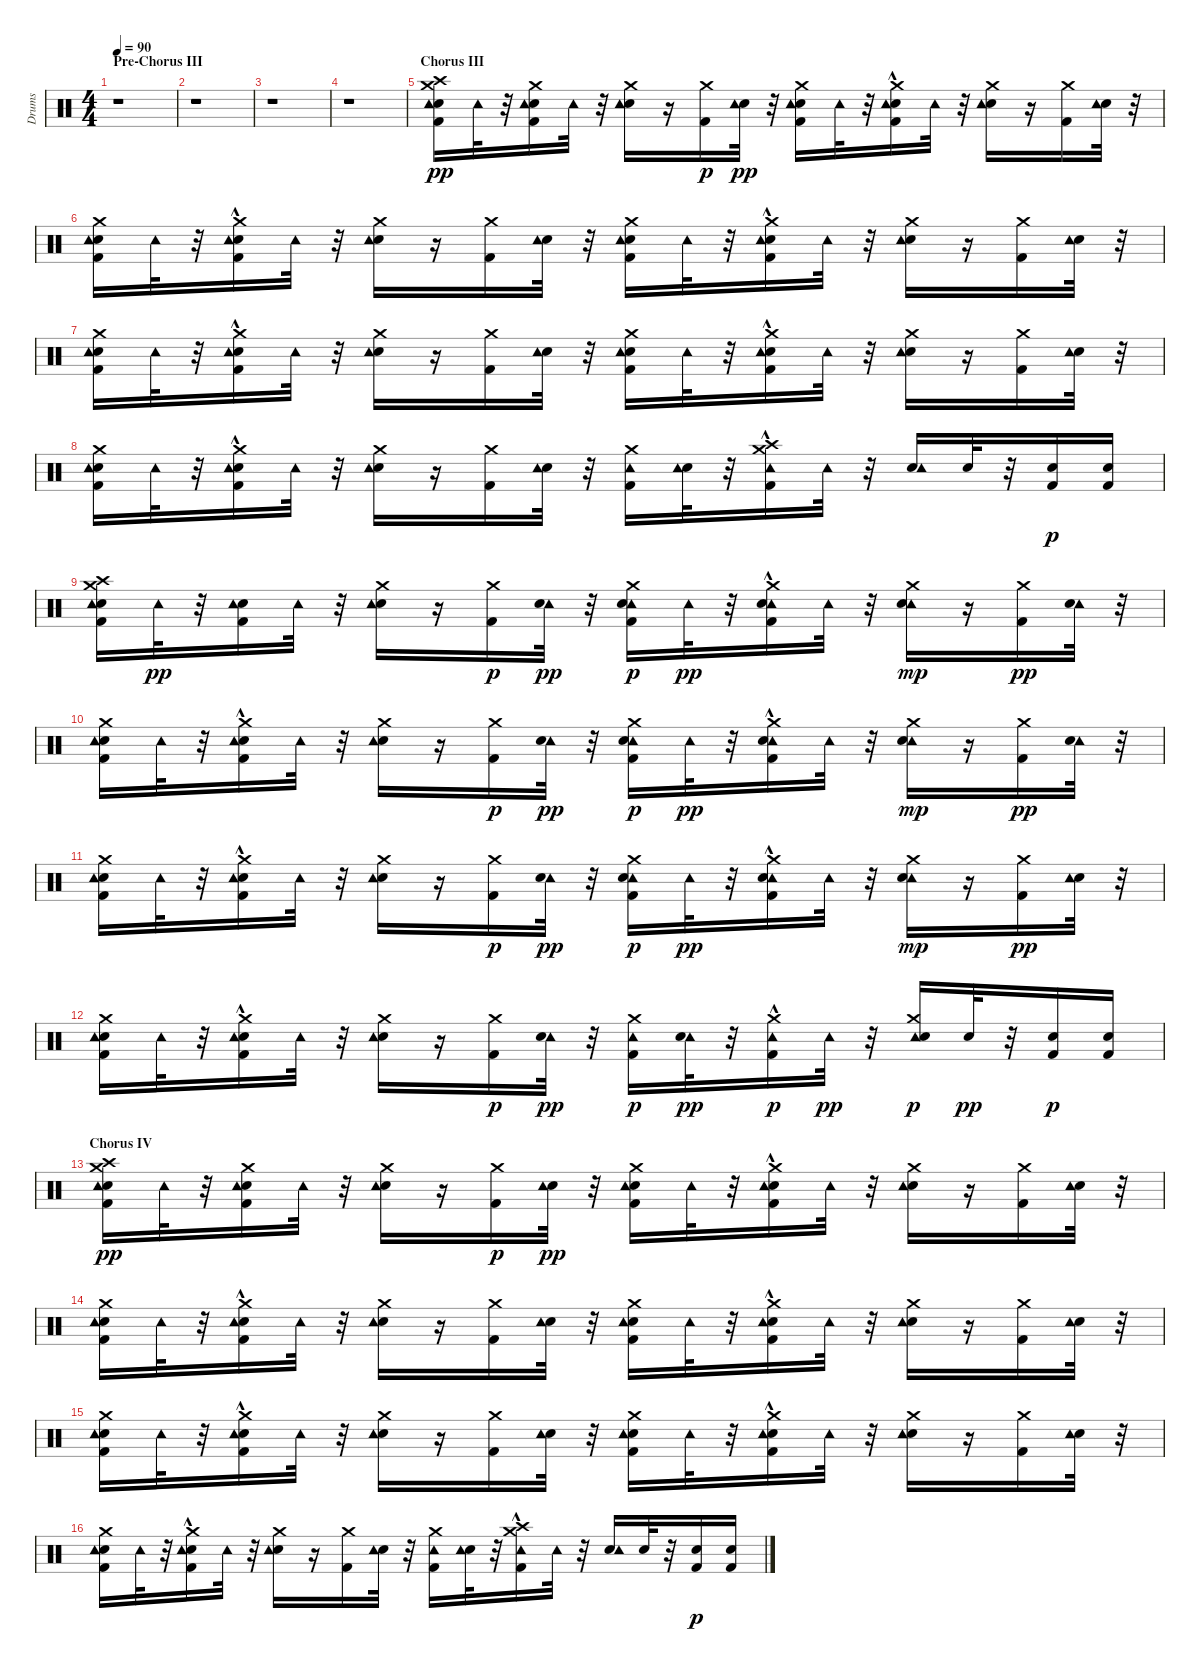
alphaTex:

\track ("Drums" "Drums") {instrument percussion}
\staff {score}
\articulation defaults
\ts (4 4)
\section ("" "Pre-Chorus III")
\tempo 90
\clef neutral
\ks c
r.1{dy pp} |
r.1 |
r.1 |
r.1 |
\section ("" "Chorus III")
("Electric Snare (hit)" "Crash medium (hit)" "Kick (hit) 2" "Crash high (hit)" "Tambourine (hit)").16{volume 12 balance 8} "Tambourine (hit)".32 r.32 ("Electric Snare (hit)" "Kick (hit) 2" "Crash medium (hit)" "Tambourine (hit)").16 "Tambourine (hit)".32 r.32 ("Electric Snare (hit)" "Crash medium (hit)" "Tambourine (hit)").16 r.16 ("Crash medium (hit)" "Kick (hit) 2").16{dy p} ("Electric Snare (hit)" "Tambourine (hit)").32{dy pp} r.32 ("Crash medium (hit)" "Electric Snare (hit)" "Kick (hit) 2" "Tambourine (hit)").16 "Tambourine (hit)".32 r.32 ("Crash medium (hit)"{hac} "Electric Snare (hit)" "Kick (hit) 2" "Tambourine (hit)").16 "Tambourine (hit)".32 r.32 ("Crash medium (hit)" "Electric Snare (hit)" "Tambourine (hit)").16 r.16 ("Crash medium (hit)" "Kick (hit) 2").16 ("Electric Snare (hit)" "Tambourine (hit)").32 r.32 |
("Crash medium (hit)" "Electric Snare (hit)" "Kick (hit) 2" "Tambourine (hit)").16 "Tambourine (hit)".32 r.32 ("Crash medium (hit)"{hac} "Electric Snare (hit)" "Kick (hit) 2" "Tambourine (hit)").16 "Tambourine (hit)".32 r.32 ("Crash medium (hit)" "Electric Snare (hit)" "Tambourine (hit)").16 r.16 ("Kick (hit) 2" "Crash medium (hit)").16 ("Electric Snare (hit)" "Tambourine (hit)").32 r.32 ("Electric Snare (hit)" "Kick (hit) 2" "Crash medium (hit)" "Tambourine (hit)").16 "Tambourine (hit)".32 r.32 ("Electric Snare (hit)" "Kick (hit) 2" "Crash medium (hit)"{hac} "Tambourine (hit)").16 "Tambourine (hit)".32 r.32 ("Crash medium (hit)" "Electric Snare (hit)" "Tambourine (hit)").16 r.16 ("Crash medium (hit)" "Kick (hit) 2").16 ("Electric Snare (hit)" "Tambourine (hit)").32 r.32 |
("Kick (hit) 2" "Electric Snare (hit)" "Crash medium (hit)" "Tambourine (hit)").16 "Tambourine (hit)".32 r.32 ("Kick (hit) 2" "Electric Snare (hit)" "Crash medium (hit)"{hac} "Tambourine (hit)").16 "Tambourine (hit)".32 r.32 ("Crash medium (hit)" "Electric Snare (hit)" "Tambourine (hit)").16 r.16 ("Kick (hit) 2" "Crash medium (hit)").16 ("Electric Snare (hit)" "Tambourine (hit)").32 r.32 ("Crash medium (hit)" "Electric Snare (hit)" "Kick (hit) 2" "Tambourine (hit)").16 "Tambourine (hit)".32 r.32 ("Crash medium (hit)"{hac} "Electric Snare (hit)" "Kick (hit) 2" "Tambourine (hit)").16 "Tambourine (hit)".32 r.32 ("Crash medium (hit)" "Electric Snare (hit)" "Tambourine (hit)").16 r.16 ("Kick (hit) 2" "Crash medium (hit)").16 ("Electric Snare (hit)" "Tambourine (hit)").32 r.32 |
("Electric Snare (hit)" "Kick (hit) 2" "Crash medium (hit)" "Tambourine (hit)").16 "Tambourine (hit)".32 r.32 ("Electric Snare (hit)" "Kick (hit) 2" "Crash medium (hit)"{hac} "Tambourine (hit)").16 "Tambourine (hit)".32 r.32 ("Crash medium (hit)" "Electric Snare (hit)" "Tambourine (hit)").16 r.16 ("Kick (hit) 2" "Crash medium (hit)").16 ("Electric Snare (hit)" "Tambourine (hit)").32 r.32 ("Kick (hit) 2" "Crash medium (hit)" "Tambourine (hit)").16 ("Electric Snare (hit)" "Tambourine (hit)").32 r.32 ("Kick (hit) 2" "Crash medium (hit)"{hac} "Crash high (hit)"{hac} "Tambourine (hit)").16 "Tambourine (hit)".32 r.32 ("Electric Snare (hit)" "Tambourine (hit)").16 "Electric Snare (hit)".32 r.32 ("Electric Snare (hit)" "Kick (hit) 2").16{dy p} ("Kick (hit) 2" "Electric Snare (hit)").16 |
("Electric Snare (hit)" "Tambourine (hit)" "Kick (hit) 2" "Crash high (hit)" "Crash medium (hit)").16 "Tambourine (hit)".32{dy pp} r.32 ("Electric Snare (hit)" "Tambourine (hit)" "Kick (hit) 2").16 "Tambourine (hit)".32 r.32 ("Crash medium (hit)" "Electric Snare (hit)" "Tambourine (hit)").16 r.16 ("Crash medium (hit)" "Kick (hit) 2").16{dy p} ("Tambourine (hit)" "Electric Snare (hit)").32{dy pp} r.32 ("Crash medium (hit)" "Tambourine (hit)" "Electric Snare (hit)" "Kick (hit) 2").16{dy p} "Tambourine (hit)".32{dy pp} r.32 ("Crash medium (hit)"{hac} "Tambourine (hit)" "Electric Snare (hit)" "Kick (hit) 2").16 "Tambourine (hit)".32 r.32 ("Crash medium (hit)" "Tambourine (hit)" "Electric Snare (hit)").16{dy mp} r.16 ("Crash medium (hit)" "Kick (hit) 2").16{dy pp} ("Tambourine (hit)" "Electric Snare (hit)").32 r.32 |
("Crash medium (hit)" "Electric Snare (hit)" "Kick (hit) 2" "Tambourine (hit)").16 "Tambourine (hit)".32 r.32 ("Crash medium (hit)"{hac} "Electric Snare (hit)" "Kick (hit) 2" "Tambourine (hit)").16 "Tambourine (hit)".32 r.32 ("Crash medium (hit)" "Electric Snare (hit)" "Tambourine (hit)").16 r.16 ("Crash medium (hit)" "Kick (hit) 2").16{dy p} ("Tambourine (hit)" "Electric Snare (hit)").32{dy pp} r.32 ("Crash medium (hit)" "Tambourine (hit)" "Electric Snare (hit)" "Kick (hit) 2").16{dy p} "Tambourine (hit)".32{dy pp} r.32 ("Crash medium (hit)"{hac} "Tambourine (hit)" "Electric Snare (hit)" "Kick (hit) 2").16 "Tambourine (hit)".32 r.32 ("Crash medium (hit)" "Tambourine (hit)" "Electric Snare (hit)").16{dy mp} r.16 ("Crash medium (hit)" "Kick (hit) 2").16{dy pp} ("Tambourine (hit)" "Electric Snare (hit)").32 r.32 |
("Crash medium (hit)" "Kick (hit) 2" "Electric Snare (hit)" "Tambourine (hit)").16 "Tambourine (hit)".32 r.32 ("Crash medium (hit)"{hac} "Kick (hit) 2" "Electric Snare (hit)" "Tambourine (hit)").16 "Tambourine (hit)".32 r.32 ("Crash medium (hit)" "Electric Snare (hit)" "Tambourine (hit)").16 r.16 ("Crash medium (hit)" "Kick (hit) 2").16{dy p} ("Tambourine (hit)" "Electric Snare (hit)").32{dy pp} r.32 ("Crash medium (hit)" "Tambourine (hit)" "Electric Snare (hit)" "Kick (hit) 2").16{dy p} "Tambourine (hit)".32{dy pp} r.32 ("Crash medium (hit)"{hac} "Tambourine (hit)" "Electric Snare (hit)" "Kick (hit) 2").16 "Tambourine (hit)".32 r.32 ("Crash medium (hit)" "Tambourine (hit)" "Electric Snare (hit)").16{dy mp} r.16 ("Crash medium (hit)" "Kick (hit) 2").16{dy pp} ("Electric Snare (hit)" "Tambourine (hit)").32 r.32 |
("Crash medium (hit)" "Electric Snare (hit)" "Kick (hit) 2" "Tambourine (hit)").16 "Tambourine (hit)".32 r.32 ("Crash medium (hit)"{hac} "Electric Snare (hit)" "Kick (hit) 2" "Tambourine (hit)").16 "Tambourine (hit)".32 r.32 ("Crash medium (hit)" "Electric Snare (hit)" "Tambourine (hit)").16 r.16 ("Crash medium (hit)" "Kick (hit) 2").16{dy p} ("Tambourine (hit)" "Electric Snare (hit)").32{dy pp} r.32 ("Crash medium (hit)" "Tambourine (hit)" "Kick (hit) 2").16{dy p} ("Tambourine (hit)" "Electric Snare (hit)").32{dy pp} r.32 ("Crash medium (hit)"{hac} "Tambourine (hit)" "Kick (hit) 2").16{dy p} "Tambourine (hit)".32{dy pp} r.32 ("Crash medium (hit)" "Tambourine (hit)" "Electric Snare (hit)").16{dy p} "Electric Snare (hit)".32{dy pp} r.32 ("Electric Snare (hit)" "Kick (hit) 2").16{dy p} ("Kick (hit) 2" "Electric Snare (hit)").16 |
\section ("" "Chorus IV")
("Electric Snare (hit)" "Crash medium (hit)" "Kick (hit) 2" "Crash high (hit)" "Tambourine (hit)").16{dy pp volume 12 balance 8} "Tambourine (hit)".32 r.32 ("Electric Snare (hit)" "Kick (hit) 2" "Crash medium (hit)" "Tambourine (hit)").16 "Tambourine (hit)".32 r.32 ("Electric Snare (hit)" "Crash medium (hit)" "Tambourine (hit)").16 r.16 ("Crash medium (hit)" "Kick (hit) 2").16{dy p} ("Electric Snare (hit)" "Tambourine (hit)").32{dy pp} r.32 ("Crash medium (hit)" "Electric Snare (hit)" "Kick (hit) 2" "Tambourine (hit)").16 "Tambourine (hit)".32 r.32 ("Crash medium (hit)"{hac} "Electric Snare (hit)" "Kick (hit) 2" "Tambourine (hit)").16 "Tambourine (hit)".32 r.32 ("Crash medium (hit)" "Electric Snare (hit)" "Tambourine (hit)").16 r.16 ("Crash medium (hit)" "Kick (hit) 2").16 ("Electric Snare (hit)" "Tambourine (hit)").32 r.32 |
("Crash medium (hit)" "Electric Snare (hit)" "Kick (hit) 2" "Tambourine (hit)").16 "Tambourine (hit)".32 r.32 ("Crash medium (hit)"{hac} "Electric Snare (hit)" "Kick (hit) 2" "Tambourine (hit)").16 "Tambourine (hit)".32 r.32 ("Crash medium (hit)" "Electric Snare (hit)" "Tambourine (hit)").16 r.16 ("Kick (hit) 2" "Crash medium (hit)").16 ("Electric Snare (hit)" "Tambourine (hit)").32 r.32 ("Electric Snare (hit)" "Kick (hit) 2" "Crash medium (hit)" "Tambourine (hit)").16 "Tambourine (hit)".32 r.32 ("Electric Snare (hit)" "Kick (hit) 2" "Crash medium (hit)"{hac} "Tambourine (hit)").16 "Tambourine (hit)".32 r.32 ("Crash medium (hit)" "Electric Snare (hit)" "Tambourine (hit)").16 r.16 ("Crash medium (hit)" "Kick (hit) 2").16 ("Electric Snare (hit)" "Tambourine (hit)").32 r.32 |
("Kick (hit) 2" "Electric Snare (hit)" "Crash medium (hit)" "Tambourine (hit)").16 "Tambourine (hit)".32 r.32 ("Kick (hit) 2" "Electric Snare (hit)" "Crash medium (hit)"{hac} "Tambourine (hit)").16 "Tambourine (hit)".32 r.32 ("Crash medium (hit)" "Electric Snare (hit)" "Tambourine (hit)").16 r.16 ("Kick (hit) 2" "Crash medium (hit)").16 ("Electric Snare (hit)" "Tambourine (hit)").32 r.32 ("Crash medium (hit)" "Electric Snare (hit)" "Kick (hit) 2" "Tambourine (hit)").16 "Tambourine (hit)".32 r.32 ("Crash medium (hit)"{hac} "Electric Snare (hit)" "Kick (hit) 2" "Tambourine (hit)").16 "Tambourine (hit)".32 r.32 ("Crash medium (hit)" "Electric Snare (hit)" "Tambourine (hit)").16 r.16 ("Kick (hit) 2" "Crash medium (hit)").16 ("Electric Snare (hit)" "Tambourine (hit)").32 r.32 |
("Electric Snare (hit)" "Kick (hit) 2" "Crash medium (hit)" "Tambourine (hit)").16 "Tambourine (hit)".32 r.32 ("Electric Snare (hit)" "Kick (hit) 2" "Crash medium (hit)"{hac} "Tambourine (hit)").16 "Tambourine (hit)".32 r.32 ("Crash medium (hit)" "Electric Snare (hit)" "Tambourine (hit)").16 r.16 ("Kick (hit) 2" "Crash medium (hit)").16 ("Electric Snare (hit)" "Tambourine (hit)").32 r.32 ("Kick (hit) 2" "Crash medium (hit)" "Tambourine (hit)").16 ("Electric Snare (hit)" "Tambourine (hit)").32 r.32 ("Kick (hit) 2" "Crash medium (hit)"{hac} "Crash high (hit)"{hac} "Tambourine (hit)").16 "Tambourine (hit)".32 r.32 ("Electric Snare (hit)" "Tambourine (hit)").16 "Electric Snare (hit)".32 r.32 ("Electric Snare (hit)" "Kick (hit) 2").16{dy p} ("Kick (hit) 2" "Electric Snare (hit)").16
